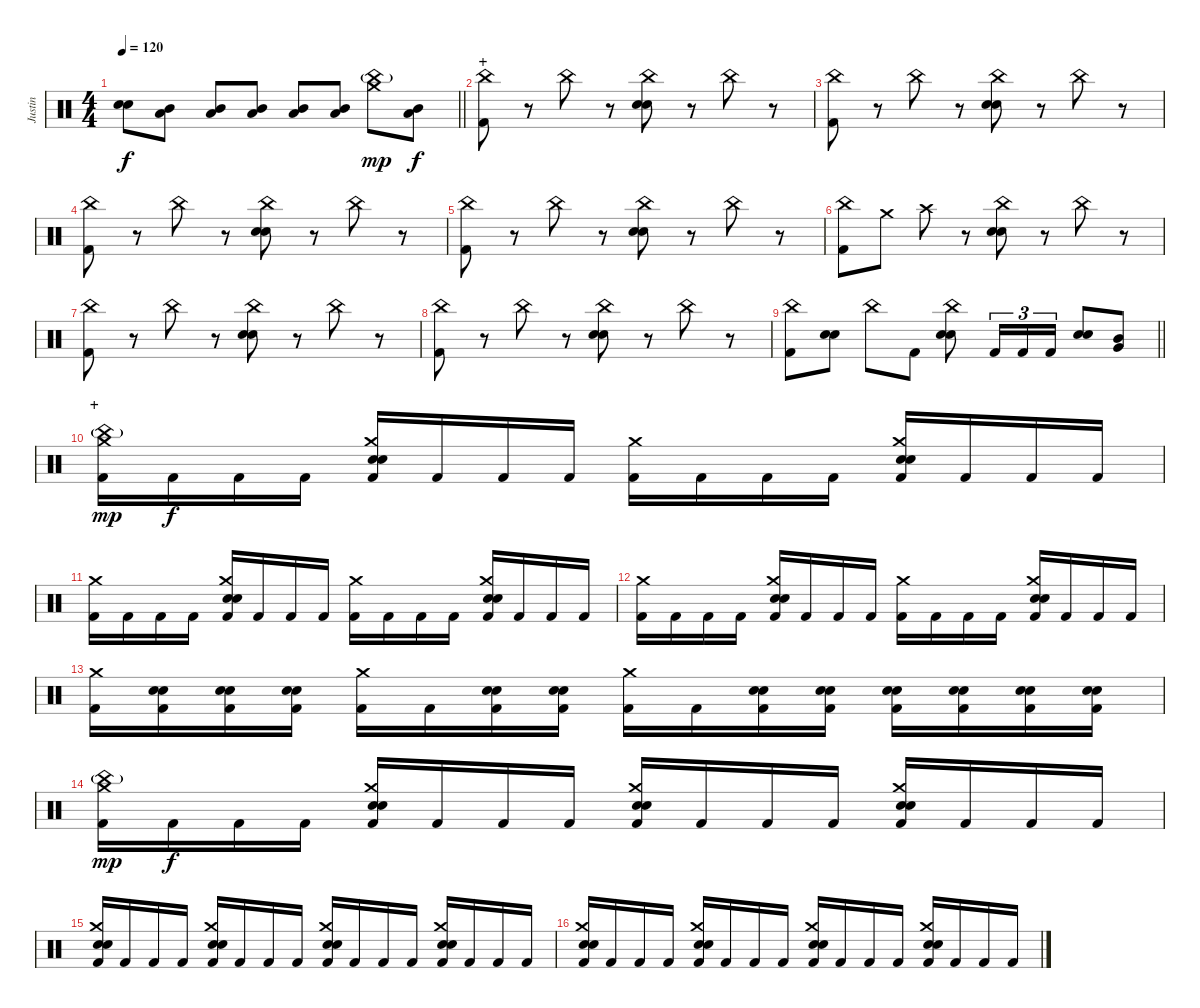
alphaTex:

\track ("Justin" "Justin") {instrument percussion}
\staff {score}
\articulation defaults
\ts (4 4)
\tempo 120
\clef neutral
\barLineRight lightlight
\ks c
("Snare (hit)"{t} "Snare (hit)"{t}).8{dy f} ("Mid Tom (hit)" "Low Tom (hit)").8 ("Mid Tom (hit)" "Low Tom (hit)").8 ("Mid Tom (hit)" "Low Tom (hit)").8 ("Mid Tom (hit)" "Low Tom (hit)").8 ("Mid Tom (hit)" "Low Tom (hit)").8 ("China (hit)"{g} "Crash medium (hit)").8{dy mp} ("Mid Tom (hit)" "Low Tom (hit)").8{dy f} |
\section ("" "+")
("China (hit)" "Kick (hit) 2").8 r.8 "China (hit)".8 r.8 ("China (hit)" "Electric Snare (hit)" "Snare (hit) 2").8 r.8 "China (hit)".8 r.8 |
("China (hit)" "Kick (hit) 2").8 r.8 "China (hit)".8 r.8 ("China (hit)" "Electric Snare (hit)" "Snare (hit) 2").8 r.8 "China (hit)".8 r.8 |
("China (hit)" "Kick (hit) 2").8 r.8 "China (hit)".8 r.8 ("China (hit)" "Electric Snare (hit)" "Snare (hit) 2").8 r.8 "China (hit)".8 r.8 |
("China (hit)" "Kick (hit) 2").8 r.8 "China (hit)".8 r.8 ("China (hit)" "Electric Snare (hit)" "Snare (hit) 2").8 r.8 "China (hit)".8 r.8 |
("China (hit)" "Kick (hit) 2").8 "Crash medium (hit)".8 "Crash high (hit)".8 r.8 ("China (hit)" "Electric Snare (hit)" "Snare (hit) 2").8 r.8 "China (hit)".8 r.8 |
("China (hit)" "Kick (hit) 2").8 r.8 "China (hit)".8 r.8 ("China (hit)" "Electric Snare (hit)" "Snare (hit) 2").8 r.8 "China (hit)".8 r.8 |
("China (hit)" "Kick (hit) 2").8 r.8 "China (hit)".8 r.8 ("China (hit)" "Electric Snare (hit)" "Snare (hit) 2").8 r.8 "China (hit)".8 r.8 |
\barLineRight lightlight
("China (hit)" "Kick (hit) 2").8 ("Electric Snare (hit)" "Snare (hit) 2").8 "China (hit)".8 "Kick (hit) 2".8 ("China (hit)" "Electric Snare (hit)" "Snare (hit) 2").8 "Kick (hit) 2".16{tu (3 2)} "Kick (hit) 2".16{tu (3 2)} "Kick (hit) 2".16{tu (3 2)} ("Electric Snare (hit)" "Snare (hit) 2").8 ("Mid Tom (hit)" "Very Low Tom (hit)").8 |
\section ("" "+")
("Crash medium (hit)" "China (hit)"{g} "Kick (hit) 2").16{dy mp} "Kick (hit) 2".16{dy f} "Kick (hit) 2".16 "Kick (hit) 2".16 ("Crash medium (hit)" "Electric Snare (hit)" "Snare (hit) 2" "Kick (hit) 2").16 "Kick (hit) 2".16 "Kick (hit) 2".16 "Kick (hit) 2".16 ("Crash medium (hit)" "Kick (hit) 2").16 "Kick (hit) 2".16 "Kick (hit) 2".16 "Kick (hit) 2".16 ("Crash medium (hit)" "Electric Snare (hit)" "Snare (hit) 2" "Kick (hit) 2").16 "Kick (hit) 2".16 "Kick (hit) 2".16 "Kick (hit) 2".16 |
("Crash medium (hit)" "Kick (hit) 2").16 "Kick (hit) 2".16 "Kick (hit) 2".16 "Kick (hit) 2".16 ("Crash medium (hit)" "Electric Snare (hit)" "Snare (hit) 2" "Kick (hit) 2").16 "Kick (hit) 2".16 "Kick (hit) 2".16 "Kick (hit) 2".16 ("Crash medium (hit)" "Kick (hit) 2").16 "Kick (hit) 2".16 "Kick (hit) 2".16 "Kick (hit) 2".16 ("Crash medium (hit)" "Electric Snare (hit)" "Snare (hit) 2" "Kick (hit) 2").16 "Kick (hit) 2".16 "Kick (hit) 2".16 "Kick (hit) 2".16 |
("Crash medium (hit)" "Kick (hit) 2").16 "Kick (hit) 2".16 "Kick (hit) 2".16 "Kick (hit) 2".16 ("Crash medium (hit)" "Electric Snare (hit)" "Snare (hit) 2" "Kick (hit) 2").16 "Kick (hit) 2".16 "Kick (hit) 2".16 "Kick (hit) 2".16 ("Crash medium (hit)" "Kick (hit) 2").16 "Kick (hit) 2".16 "Kick (hit) 2".16 "Kick (hit) 2".16 ("Crash medium (hit)" "Electric Snare (hit)" "Snare (hit) 2" "Kick (hit) 2").16 "Kick (hit) 2".16 "Kick (hit) 2".16 "Kick (hit) 2".16 |
("Crash medium (hit)" "Kick (hit) 2").16 ("Electric Snare (hit)" "Snare (hit) 2" "Kick (hit) 2").16 ("Electric Snare (hit)" "Snare (hit) 2" "Kick (hit) 2").16 ("Electric Snare (hit)" "Snare (hit) 2" "Kick (hit) 2").16 ("Crash medium (hit)" "Kick (hit) 2").16 "Kick (hit) 2".16 ("Electric Snare (hit)" "Snare (hit) 2" "Kick (hit) 2").16 ("Electric Snare (hit)" "Snare (hit) 2" "Kick (hit) 2").16 ("Crash medium (hit)" "Kick (hit) 2").16 "Kick (hit) 2".16 ("Electric Snare (hit)" "Snare (hit) 2" "Kick (hit) 2").16 ("Electric Snare (hit)" "Snare (hit) 2" "Kick (hit) 2").16 ("Electric Snare (hit)" "Snare (hit) 2" "Kick (hit) 2").16 ("Electric Snare (hit)" "Snare (hit) 2" "Kick (hit) 2").16 ("Electric Snare (hit)" "Snare (hit) 2" "Kick (hit) 2").16 ("Electric Snare (hit)" "Snare (hit) 2" "Kick (hit) 2").16 |
("Crash medium (hit)" "China (hit)"{g} "Kick (hit) 2").16{dy mp} "Kick (hit) 2".16{dy f} "Kick (hit) 2".16 "Kick (hit) 2".16 ("Crash medium (hit)" "Electric Snare (hit)" "Snare (hit) 2" "Kick (hit) 2").16 "Kick (hit) 2".16 "Kick (hit) 2".16 "Kick (hit) 2".16 ("Crash medium (hit)" "Electric Snare (hit)" "Snare (hit) 2" "Kick (hit) 2").16 "Kick (hit) 2".16 "Kick (hit) 2".16 "Kick (hit) 2".16 ("Crash medium (hit)" "Electric Snare (hit)" "Snare (hit) 2" "Kick (hit) 2").16 "Kick (hit) 2".16 "Kick (hit) 2".16 "Kick (hit) 2".16 |
("Crash medium (hit)" "Electric Snare (hit)" "Snare (hit) 2" "Kick (hit) 2").16 "Kick (hit) 2".16 "Kick (hit) 2".16 "Kick (hit) 2".16 ("Crash medium (hit)" "Electric Snare (hit)" "Snare (hit) 2" "Kick (hit) 2").16 "Kick (hit) 2".16 "Kick (hit) 2".16 "Kick (hit) 2".16 ("Crash medium (hit)" "Electric Snare (hit)" "Snare (hit) 2" "Kick (hit) 2").16 "Kick (hit) 2".16 "Kick (hit) 2".16 "Kick (hit) 2".16 ("Crash medium (hit)" "Electric Snare (hit)" "Snare (hit) 2" "Kick (hit) 2").16 "Kick (hit) 2".16 "Kick (hit) 2".16 "Kick (hit) 2".16 |
("Crash medium (hit)" "Electric Snare (hit)" "Snare (hit) 2" "Kick (hit) 2").16 "Kick (hit) 2".16 "Kick (hit) 2".16 "Kick (hit) 2".16 ("Crash medium (hit)" "Electric Snare (hit)" "Snare (hit) 2" "Kick (hit) 2").16 "Kick (hit) 2".16 "Kick (hit) 2".16 "Kick (hit) 2".16 ("Crash medium (hit)" "Electric Snare (hit)" "Snare (hit) 2" "Kick (hit) 2").16 "Kick (hit) 2".16 "Kick (hit) 2".16 "Kick (hit) 2".16 ("Crash medium (hit)" "Electric Snare (hit)" "Snare (hit) 2" "Kick (hit) 2").16 "Kick (hit) 2".16 "Kick (hit) 2".16 "Kick (hit) 2".16
